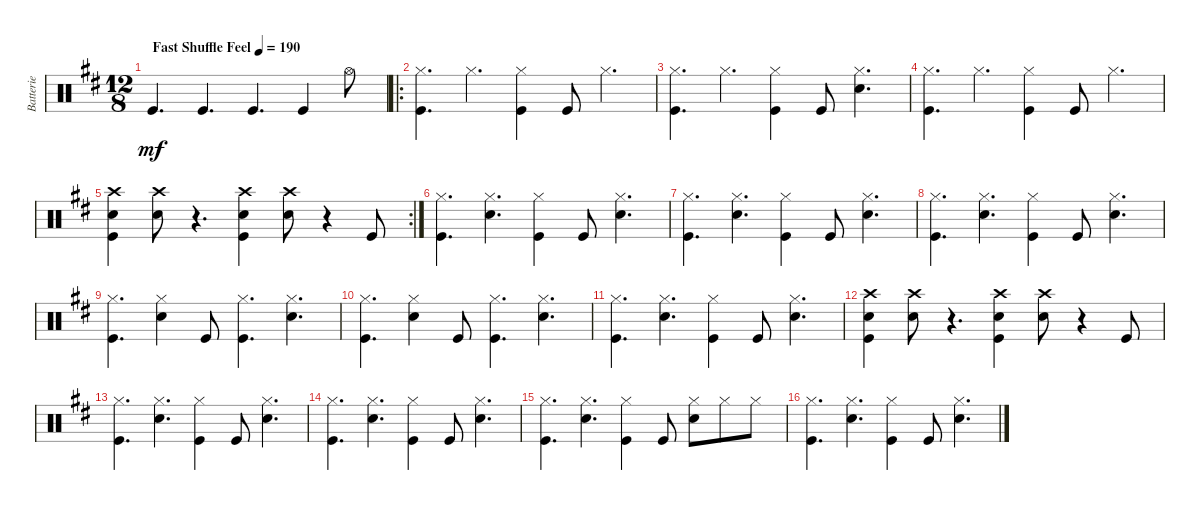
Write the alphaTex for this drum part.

\track ("Batterie" "Batterie") {instrument percussion}
\staff {score}
\articulation defaults
\ts (12 8)
\tempo (190 "Fast Shuffle Feel")
\clef neutral
\ks d "Kick (hit)".4{d dy mf} "Kick (hit)".4{d} "Kick (hit)".4{d} "Kick (hit)".4 "Hi-Hat (open)".8
|
\ro
("Hi-Hat (closed)" "Kick (hit)").4{d} "Hi-Hat (closed)".4{d} ("Hi-Hat (closed)" "Kick (hit)").4 "Kick (hit)".8 "Hi-Hat (closed)".4{d} |
("Hi-Hat (closed)" "Kick (hit)").4{d} "Hi-Hat (closed)".4{d} ("Hi-Hat (closed)" "Kick (hit)").4 "Kick (hit)".8 ("Hi-Hat (closed)" "Snare (hit) 2").4{d} |
("Hi-Hat (closed)" "Kick (hit)").4{d} "Hi-Hat (closed)".4{d} ("Hi-Hat (closed)" "Kick (hit)").4 "Kick (hit)".8 "Hi-Hat (closed)".4{d} |
\rc 2
("Crash high (hit)" "Snare (hit) 2" "Kick (hit)").4 ("Crash high (hit)" "Snare (hit) 2").8 r.4{d} ("Crash high (hit)" "Snare (hit) 2" "Kick (hit)").4 ("Crash high (hit)" "Snare (hit) 2").8 r.4 "Kick (hit)".8 |
("Hi-Hat (closed)" "Kick (hit)").4{d} ("Hi-Hat (closed)" "Snare (hit) 2").4{d} ("Hi-Hat (closed)" "Kick (hit)").4 "Kick (hit)".8 ("Hi-Hat (closed)" "Snare (hit) 2").4{d} |
("Hi-Hat (closed)" "Kick (hit)").4{d} ("Hi-Hat (closed)" "Snare (hit) 2").4{d} ("Hi-Hat (closed)" "Kick (hit)").4 "Kick (hit)".8 ("Hi-Hat (closed)" "Snare (hit) 2").4{d} |
("Hi-Hat (closed)" "Kick (hit)").4{d} ("Hi-Hat (closed)" "Snare (hit) 2").4{d} ("Hi-Hat (closed)" "Kick (hit)").4 "Kick (hit)".8 ("Hi-Hat (closed)" "Snare (hit) 2").4{d} |
("Hi-Hat (closed)" "Kick (hit)").4{d} ("Hi-Hat (closed)" "Snare (hit) 2").4 "Kick (hit)".8 ("Hi-Hat (closed)" "Kick (hit)").4{d} ("Hi-Hat (closed)" "Snare (hit) 2").4{d} |
("Hi-Hat (closed)" "Kick (hit)").4{d} ("Hi-Hat (closed)" "Snare (hit) 2").4 "Kick (hit)".8 ("Hi-Hat (closed)" "Kick (hit)").4{d} ("Hi-Hat (closed)" "Snare (hit) 2").4{d} |
("Hi-Hat (closed)" "Kick (hit)").4{d} ("Hi-Hat (closed)" "Snare (hit) 2").4{d} ("Hi-Hat (closed)" "Kick (hit)").4 "Kick (hit)".8 ("Hi-Hat (closed)" "Snare (hit) 2").4{d} |
("Crash high (hit)" "Snare (hit) 2" "Kick (hit)").4 ("Crash high (hit)" "Snare (hit) 2").8 r.4{d} ("Crash high (hit)" "Snare (hit) 2" "Kick (hit)").4 ("Crash high (hit)" "Snare (hit) 2").8 r.4 "Kick (hit)".8 |
("Hi-Hat (closed)" "Kick (hit)").4{d} ("Hi-Hat (closed)" "Snare (hit) 2").4{d} ("Hi-Hat (closed)" "Kick (hit)").4 "Kick (hit)".8 ("Hi-Hat (closed)" "Snare (hit) 2").4{d} |
("Hi-Hat (closed)" "Kick (hit)").4{d} ("Hi-Hat (closed)" "Snare (hit) 2").4{d} ("Hi-Hat (closed)" "Kick (hit)").4 "Kick (hit)".8 ("Hi-Hat (closed)" "Snare (hit) 2").4{d} |
("Hi-Hat (closed)" "Kick (hit)").4{d} ("Hi-Hat (closed)" "Snare (hit) 2").4{d} ("Hi-Hat (closed)" "Kick (hit)").4 "Kick (hit)".8 ("Hi-Hat (closed)" "Snare (hit) 2").8 "Hi-Hat (closed)".8 "Hi-Hat (closed)".8 |
("Hi-Hat (closed)" "Kick (hit)").4{d} ("Hi-Hat (closed)" "Snare (hit) 2").4{d} ("Hi-Hat (closed)" "Kick (hit)").4 "Kick (hit)".8 ("Hi-Hat (closed)" "Snare (hit) 2").4{d}
